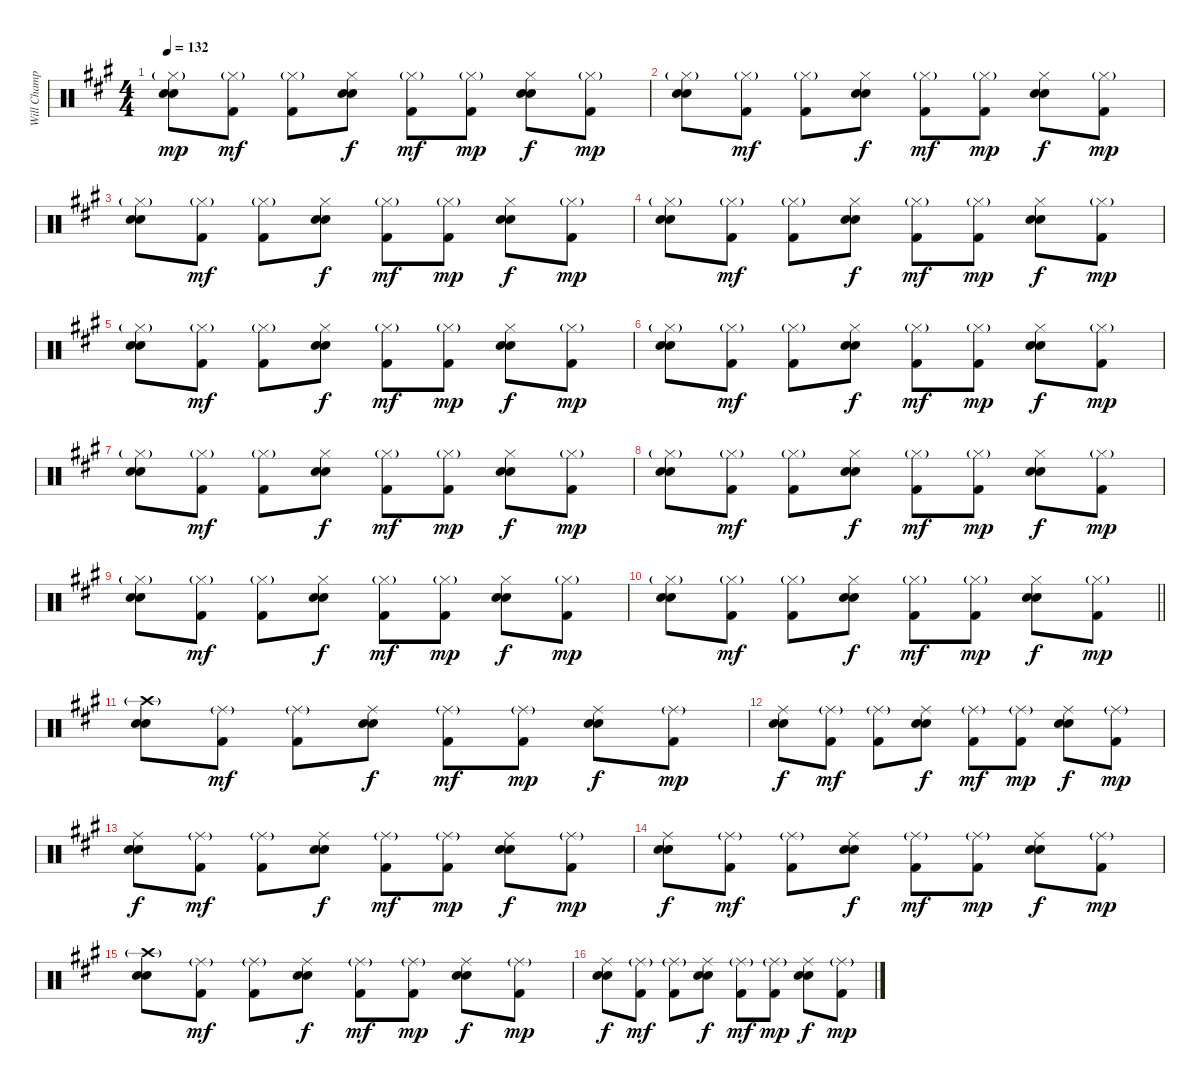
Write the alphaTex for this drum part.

\track ("Will Champion-Drums(percussion)" "Will Champ") {instrument percussion}
\staff {score}
\articulation defaults
\ts (4 4)
\tempo 132
\clef neutral
\ks a
("Hi-Hat (closed)"{g} "Electric Snare (hit)" "Snare (hit) 2").8{dy mp} ("Hi-Hat (closed)"{g} "Kick (hit) 2").8{dy mf} ("Hi-Hat (closed)"{g} "Kick (hit) 2").8 ("Hi-Hat (closed)" "Electric Snare (hit)" "Snare (hit) 2").8{dy f} ("Hi-Hat (closed)"{g} "Kick (hit) 2").8{dy mf} ("Hi-Hat (closed)"{g} "Kick (hit) 2").8{dy mp} ("Hi-Hat (closed)" "Electric Snare (hit)" "Snare (hit) 2").8{dy f} ("Hi-Hat (closed)"{g} "Kick (hit) 2").8{dy mp} |
("Hi-Hat (closed)"{g} "Electric Snare (hit)" "Snare (hit) 2").8 ("Hi-Hat (closed)"{g} "Kick (hit) 2").8{dy mf} ("Hi-Hat (closed)"{g} "Kick (hit) 2").8 ("Hi-Hat (closed)" "Electric Snare (hit)" "Snare (hit) 2").8{dy f} ("Hi-Hat (closed)"{g} "Kick (hit) 2").8{dy mf} ("Hi-Hat (closed)"{g} "Kick (hit) 2").8{dy mp} ("Hi-Hat (closed)" "Electric Snare (hit)" "Snare (hit) 2").8{dy f} ("Hi-Hat (closed)"{g} "Kick (hit) 2").8{dy mp} |
("Hi-Hat (closed)"{g} "Electric Snare (hit)" "Snare (hit) 2").8 ("Hi-Hat (closed)"{g} "Kick (hit) 2").8{dy mf} ("Hi-Hat (closed)"{g} "Kick (hit) 2").8 ("Hi-Hat (closed)" "Electric Snare (hit)" "Snare (hit) 2").8{dy f} ("Hi-Hat (closed)"{g} "Kick (hit) 2").8{dy mf} ("Hi-Hat (closed)"{g} "Kick (hit) 2").8{dy mp} ("Hi-Hat (closed)" "Electric Snare (hit)" "Snare (hit) 2").8{dy f} ("Hi-Hat (closed)"{g} "Kick (hit) 2").8{dy mp} |
("Hi-Hat (closed)"{g} "Electric Snare (hit)" "Snare (hit) 2").8 ("Hi-Hat (closed)"{g} "Kick (hit) 2").8{dy mf} ("Hi-Hat (closed)"{g} "Kick (hit) 2").8 ("Hi-Hat (closed)" "Electric Snare (hit)" "Snare (hit) 2").8{dy f} ("Hi-Hat (closed)"{g} "Kick (hit) 2").8{dy mf} ("Hi-Hat (closed)"{g} "Kick (hit) 2").8{dy mp} ("Hi-Hat (closed)" "Electric Snare (hit)" "Snare (hit) 2").8{dy f} ("Hi-Hat (closed)"{g} "Kick (hit) 2").8{dy mp} |
("Hi-Hat (closed)"{g} "Electric Snare (hit)" "Snare (hit) 2").8 ("Hi-Hat (closed)"{g} "Kick (hit) 2").8{dy mf} ("Hi-Hat (closed)"{g} "Kick (hit) 2").8 ("Hi-Hat (closed)" "Electric Snare (hit)" "Snare (hit) 2").8{dy f} ("Hi-Hat (closed)"{g} "Kick (hit) 2").8{dy mf} ("Hi-Hat (closed)"{g} "Kick (hit) 2").8{dy mp} ("Hi-Hat (closed)" "Electric Snare (hit)" "Snare (hit) 2").8{dy f} ("Hi-Hat (closed)"{g} "Kick (hit) 2").8{dy mp} |
("Hi-Hat (closed)"{g} "Electric Snare (hit)" "Snare (hit) 2").8 ("Hi-Hat (closed)"{g} "Kick (hit) 2").8{dy mf} ("Hi-Hat (closed)"{g} "Kick (hit) 2").8 ("Hi-Hat (closed)" "Electric Snare (hit)" "Snare (hit) 2").8{dy f} ("Hi-Hat (closed)"{g} "Kick (hit) 2").8{dy mf} ("Hi-Hat (closed)"{g} "Kick (hit) 2").8{dy mp} ("Hi-Hat (closed)" "Electric Snare (hit)" "Snare (hit) 2").8{dy f} ("Hi-Hat (closed)"{g} "Kick (hit) 2").8{dy mp} |
("Hi-Hat (closed)"{g} "Electric Snare (hit)" "Snare (hit) 2").8 ("Hi-Hat (closed)"{g} "Kick (hit) 2").8{dy mf} ("Hi-Hat (closed)"{g} "Kick (hit) 2").8 ("Hi-Hat (closed)" "Electric Snare (hit)" "Snare (hit) 2").8{dy f} ("Hi-Hat (closed)"{g} "Kick (hit) 2").8{dy mf} ("Hi-Hat (closed)"{g} "Kick (hit) 2").8{dy mp} ("Hi-Hat (closed)" "Electric Snare (hit)" "Snare (hit) 2").8{dy f} ("Hi-Hat (closed)"{g} "Kick (hit) 2").8{dy mp} |
("Hi-Hat (closed)"{g} "Electric Snare (hit)" "Snare (hit) 2").8 ("Hi-Hat (closed)"{g} "Kick (hit) 2").8{dy mf} ("Hi-Hat (closed)"{g} "Kick (hit) 2").8 ("Hi-Hat (closed)" "Electric Snare (hit)" "Snare (hit) 2").8{dy f} ("Hi-Hat (closed)"{g} "Kick (hit) 2").8{dy mf} ("Hi-Hat (closed)"{g} "Kick (hit) 2").8{dy mp} ("Hi-Hat (closed)" "Electric Snare (hit)" "Snare (hit) 2").8{dy f} ("Hi-Hat (closed)"{g} "Kick (hit) 2").8{dy mp} |
("Hi-Hat (closed)"{g} "Electric Snare (hit)" "Snare (hit) 2").8 ("Hi-Hat (closed)"{g} "Kick (hit) 2").8{dy mf} ("Hi-Hat (closed)"{g} "Kick (hit) 2").8 ("Hi-Hat (closed)" "Electric Snare (hit)" "Snare (hit) 2").8{dy f} ("Hi-Hat (closed)"{g} "Kick (hit) 2").8{dy mf} ("Hi-Hat (closed)"{g} "Kick (hit) 2").8{dy mp} ("Hi-Hat (closed)" "Electric Snare (hit)" "Snare (hit) 2").8{dy f} ("Hi-Hat (closed)"{g} "Kick (hit) 2").8{dy mp} |
\barLineRight lightlight
("Hi-Hat (closed)"{g} "Electric Snare (hit)" "Snare (hit) 2").8 ("Hi-Hat (closed)"{g} "Kick (hit) 2").8{dy mf} ("Hi-Hat (closed)"{g} "Kick (hit) 2").8 ("Hi-Hat (closed)" "Electric Snare (hit)" "Snare (hit) 2").8{dy f} ("Hi-Hat (closed)"{g} "Kick (hit) 2").8{dy mf} ("Hi-Hat (closed)"{g} "Kick (hit) 2").8{dy mp} ("Hi-Hat (closed)" "Electric Snare (hit)" "Snare (hit) 2").8{dy f} ("Hi-Hat (closed)"{g} "Kick (hit) 2").8{dy mp} |
("Crash high (hit)"{g} "Electric Snare (hit)" "Snare (hit) 2").8 ("Ride (middle)"{g} "Kick (hit) 2").8{dy mf} ("Ride (middle)"{g} "Kick (hit) 2").8 ("Ride (middle)" "Electric Snare (hit)" "Snare (hit) 2").8{dy f} ("Ride (middle)"{g} "Kick (hit) 2").8{dy mf} ("Ride (middle)"{g} "Kick (hit) 2").8{dy mp} ("Ride (middle)" "Electric Snare (hit)" "Snare (hit) 2").8{dy f} ("Ride (middle)"{g} "Kick (hit) 2").8{dy mp} |
("Ride (middle)" "Electric Snare (hit)" "Snare (hit) 2").8{dy f} ("Ride (middle)"{g} "Kick (hit) 2").8{dy mf} ("Ride (middle)"{g} "Kick (hit) 2").8 ("Ride (middle)" "Electric Snare (hit)" "Snare (hit) 2").8{dy f} ("Ride (middle)"{g} "Kick (hit) 2").8{dy mf} ("Ride (middle)"{g} "Kick (hit) 2").8{dy mp} ("Ride (middle)" "Electric Snare (hit)" "Snare (hit) 2").8{dy f} ("Ride (middle)"{g} "Kick (hit) 2").8{dy mp} |
("Ride (middle)" "Electric Snare (hit)" "Snare (hit) 2").8{dy f} ("Ride (middle)"{g} "Kick (hit) 2").8{dy mf} ("Ride (middle)"{g} "Kick (hit) 2").8 ("Ride (middle)" "Electric Snare (hit)" "Snare (hit) 2").8{dy f} ("Ride (middle)"{g} "Kick (hit) 2").8{dy mf} ("Ride (middle)"{g} "Kick (hit) 2").8{dy mp} ("Ride (middle)" "Electric Snare (hit)" "Snare (hit) 2").8{dy f} ("Ride (middle)"{g} "Kick (hit) 2").8{dy mp} |
("Ride (middle)" "Electric Snare (hit)" "Snare (hit) 2").8{dy f} ("Ride (middle)"{g} "Kick (hit) 2").8{dy mf} ("Ride (middle)"{g} "Kick (hit) 2").8 ("Ride (middle)" "Electric Snare (hit)" "Snare (hit) 2").8{dy f} ("Ride (middle)"{g} "Kick (hit) 2").8{dy mf} ("Ride (middle)"{g} "Kick (hit) 2").8{dy mp} ("Ride (middle)" "Electric Snare (hit)" "Snare (hit) 2").8{dy f} ("Ride (middle)"{g} "Kick (hit) 2").8{dy mp} |
("Crash high (hit)"{g} "Electric Snare (hit)" "Snare (hit) 2").8 ("Ride (middle)"{g} "Kick (hit) 2").8{dy mf} ("Ride (middle)"{g} "Kick (hit) 2").8 ("Ride (middle)" "Electric Snare (hit)" "Snare (hit) 2").8{dy f} ("Ride (middle)"{g} "Kick (hit) 2").8{dy mf} ("Ride (middle)"{g} "Kick (hit) 2").8{dy mp} ("Ride (middle)" "Electric Snare (hit)" "Snare (hit) 2").8{dy f} ("Ride (middle)"{g} "Kick (hit) 2").8{dy mp} |
("Ride (middle)" "Electric Snare (hit)" "Snare (hit) 2").8{dy f} ("Ride (middle)"{g} "Kick (hit) 2").8{dy mf} ("Ride (middle)"{g} "Kick (hit) 2").8 ("Ride (middle)" "Electric Snare (hit)" "Snare (hit) 2").8{dy f} ("Ride (middle)"{g} "Kick (hit) 2").8{dy mf} ("Ride (middle)"{g} "Kick (hit) 2").8{dy mp} ("Ride (middle)" "Electric Snare (hit)" "Snare (hit) 2").8{dy f} ("Ride (middle)"{g} "Kick (hit) 2").8{dy mp}
